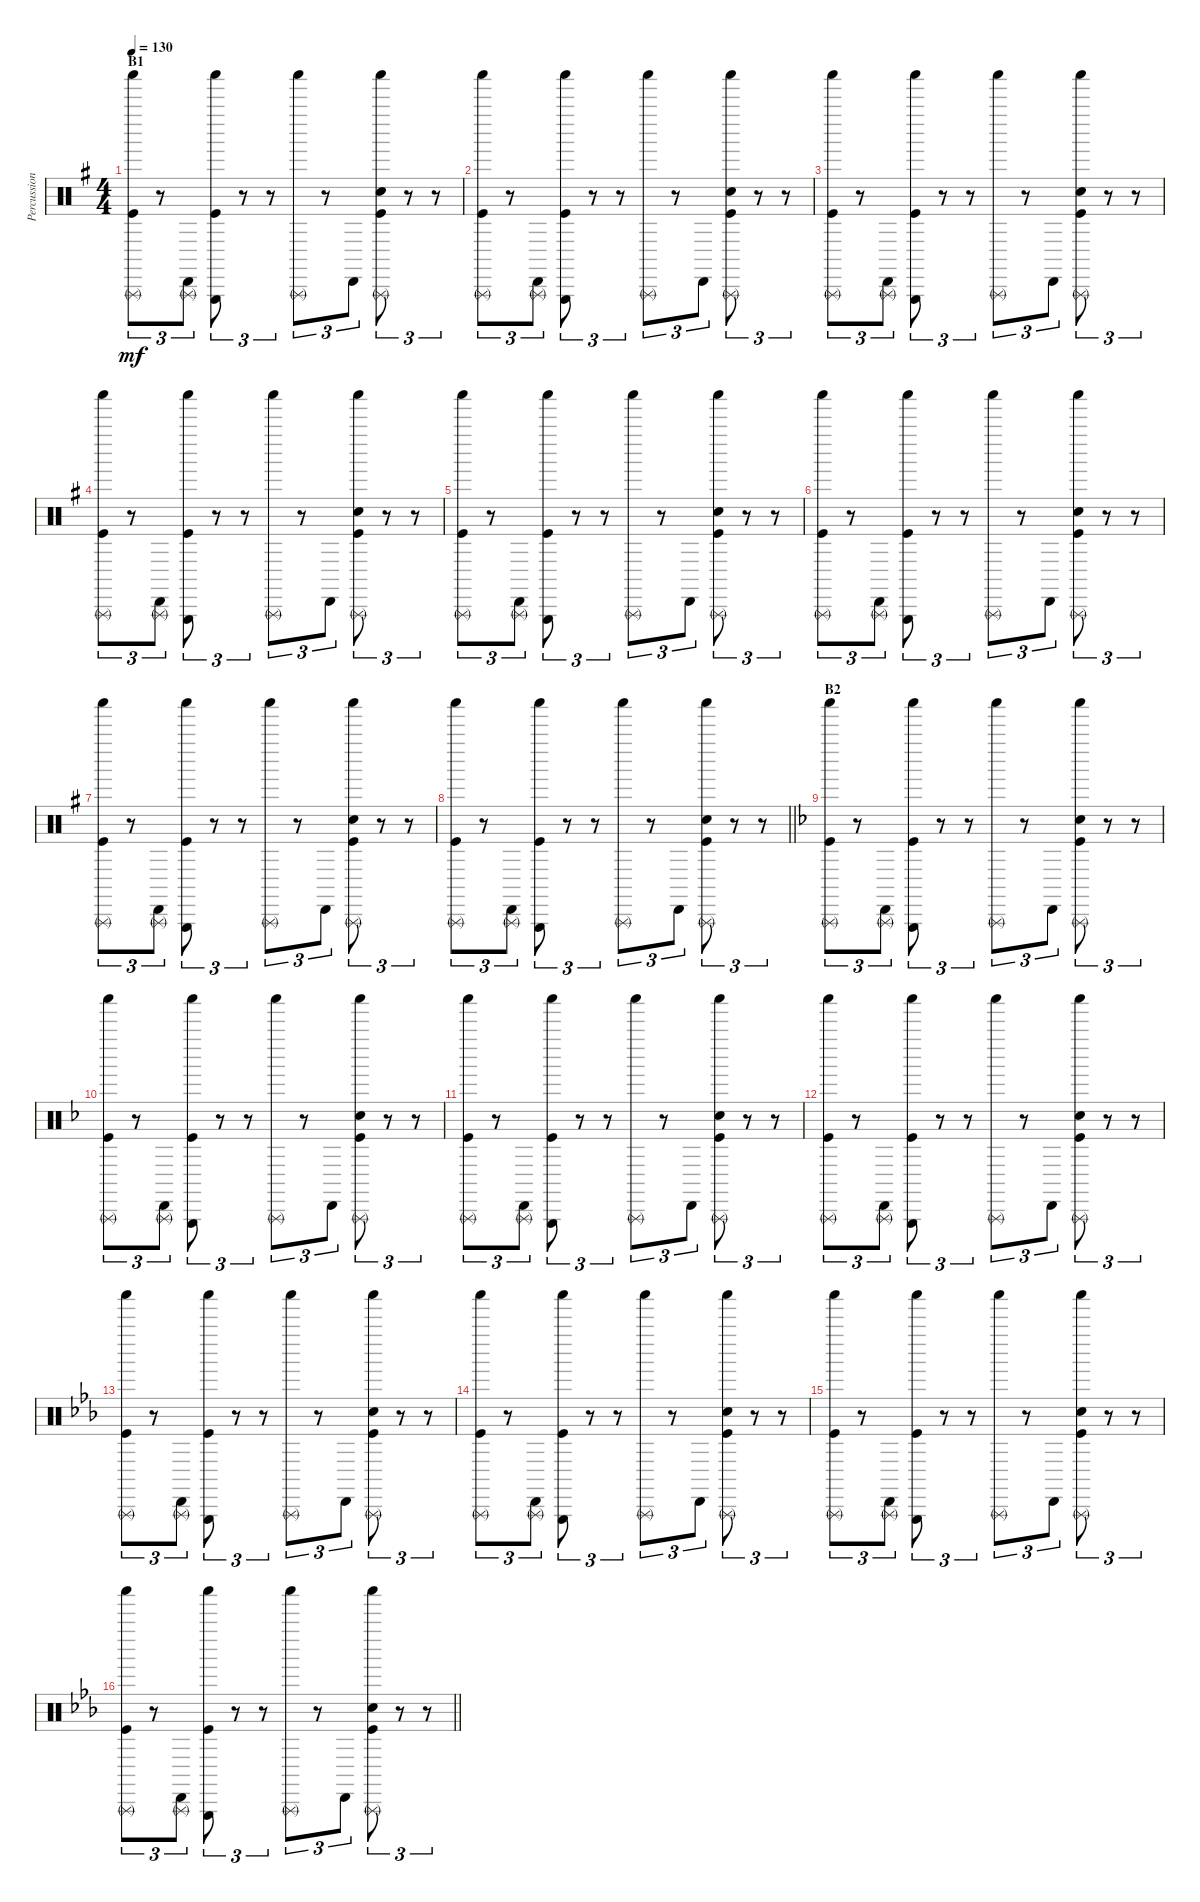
\track ("Percussion" "Percussion") {instrument percussion}
\staff {score}
\articulation defaults
\ts (4 4)
\section ("" "B1")
\tempo 130
\clef neutral
\ks g
("Shaker (hit)" "Kick (hit)" "Triangle (rnute)").8{tu (3 2) dy mf} r.8{tu (3 2)} ("Cabasa (hit)" "Triangle (rnute)").8{tu (3 2)} ("Shaker (hit)" "Kick (hit)" "Triangle (hit)").8{tu (3 2)} r.8{tu (3 2)} r.8{tu (3 2)} ("Shaker (hit)" "Triangle (rnute)").8{tu (3 2)} r.8{tu (3 2)} "Cabasa (hit)".8{tu (3 2)} ("Shaker (hit)" "Kick (hit)" "Triangle (rnute)" "Snare (hit) 2").8{tu (3 2)} r.8{tu (3 2)} r.8{tu (3 2)} |
("Shaker (hit)" "Kick (hit)" "Triangle (rnute)").8{tu (3 2)} r.8{tu (3 2)} ("Cabasa (hit)" "Triangle (rnute)").8{tu (3 2)} ("Shaker (hit)" "Kick (hit)" "Triangle (hit)").8{tu (3 2)} r.8{tu (3 2)} r.8{tu (3 2)} ("Shaker (hit)" "Triangle (rnute)").8{tu (3 2)} r.8{tu (3 2)} "Cabasa (hit)".8{tu (3 2)} ("Shaker (hit)" "Kick (hit)" "Triangle (rnute)" "Snare (hit) 2").8{tu (3 2)} r.8{tu (3 2)} r.8{tu (3 2)} |
("Shaker (hit)" "Kick (hit)" "Triangle (rnute)").8{tu (3 2)} r.8{tu (3 2)} ("Cabasa (hit)" "Triangle (rnute)").8{tu (3 2)} ("Shaker (hit)" "Kick (hit)" "Triangle (hit)").8{tu (3 2)} r.8{tu (3 2)} r.8{tu (3 2)} ("Shaker (hit)" "Triangle (rnute)").8{tu (3 2)} r.8{tu (3 2)} "Cabasa (hit)".8{tu (3 2)} ("Shaker (hit)" "Kick (hit)" "Triangle (rnute)" "Snare (hit) 2").8{tu (3 2)} r.8{tu (3 2)} r.8{tu (3 2)} |
("Shaker (hit)" "Kick (hit)" "Triangle (rnute)").8{tu (3 2)} r.8{tu (3 2)} ("Cabasa (hit)" "Triangle (rnute)").8{tu (3 2)} ("Shaker (hit)" "Kick (hit)" "Triangle (hit)").8{tu (3 2)} r.8{tu (3 2)} r.8{tu (3 2)} ("Shaker (hit)" "Triangle (rnute)").8{tu (3 2)} r.8{tu (3 2)} "Cabasa (hit)".8{tu (3 2)} ("Shaker (hit)" "Kick (hit)" "Triangle (rnute)" "Snare (hit) 2").8{tu (3 2)} r.8{tu (3 2)} r.8{tu (3 2)} |
("Shaker (hit)" "Kick (hit)" "Triangle (rnute)").8{tu (3 2)} r.8{tu (3 2)} ("Cabasa (hit)" "Triangle (rnute)").8{tu (3 2)} ("Shaker (hit)" "Kick (hit)" "Triangle (hit)").8{tu (3 2)} r.8{tu (3 2)} r.8{tu (3 2)} ("Shaker (hit)" "Triangle (rnute)").8{tu (3 2)} r.8{tu (3 2)} "Cabasa (hit)".8{tu (3 2)} ("Shaker (hit)" "Kick (hit)" "Triangle (rnute)" "Snare (hit) 2").8{tu (3 2)} r.8{tu (3 2)} r.8{tu (3 2)} |
("Shaker (hit)" "Kick (hit)" "Triangle (rnute)").8{tu (3 2)} r.8{tu (3 2)} ("Cabasa (hit)" "Triangle (rnute)").8{tu (3 2)} ("Shaker (hit)" "Kick (hit)" "Triangle (hit)").8{tu (3 2)} r.8{tu (3 2)} r.8{tu (3 2)} ("Shaker (hit)" "Triangle (rnute)").8{tu (3 2)} r.8{tu (3 2)} "Cabasa (hit)".8{tu (3 2)} ("Shaker (hit)" "Kick (hit)" "Triangle (rnute)" "Snare (hit) 2").8{tu (3 2)} r.8{tu (3 2)} r.8{tu (3 2)} |
("Shaker (hit)" "Kick (hit)" "Triangle (rnute)").8{tu (3 2)} r.8{tu (3 2)} ("Cabasa (hit)" "Triangle (rnute)").8{tu (3 2)} ("Shaker (hit)" "Kick (hit)" "Triangle (hit)").8{tu (3 2)} r.8{tu (3 2)} r.8{tu (3 2)} ("Shaker (hit)" "Triangle (rnute)").8{tu (3 2)} r.8{tu (3 2)} "Cabasa (hit)".8{tu (3 2)} ("Shaker (hit)" "Kick (hit)" "Triangle (rnute)" "Snare (hit) 2").8{tu (3 2)} r.8{tu (3 2)} r.8{tu (3 2)} |
\barLineRight lightlight
("Shaker (hit)" "Kick (hit)" "Triangle (rnute)").8{tu (3 2)} r.8{tu (3 2)} ("Cabasa (hit)" "Triangle (rnute)").8{tu (3 2)} ("Shaker (hit)" "Kick (hit)" "Triangle (hit)").8{tu (3 2)} r.8{tu (3 2)} r.8{tu (3 2)} ("Shaker (hit)" "Triangle (rnute)").8{tu (3 2)} r.8{tu (3 2)} "Cabasa (hit)".8{tu (3 2)} ("Shaker (hit)" "Kick (hit)" "Triangle (rnute)" "Snare (hit) 2").8{tu (3 2)} r.8{tu (3 2)} r.8{tu (3 2)} |
\section ("" "B2")
\ks f
("Shaker (hit)" "Kick (hit)" "Triangle (rnute)").8{tu (3 2)} r.8{tu (3 2)} ("Cabasa (hit)" "Triangle (rnute)").8{tu (3 2)} ("Shaker (hit)" "Kick (hit)" "Triangle (hit)").8{tu (3 2)} r.8{tu (3 2)} r.8{tu (3 2)} ("Shaker (hit)" "Triangle (rnute)").8{tu (3 2)} r.8{tu (3 2)} "Cabasa (hit)".8{tu (3 2)} ("Shaker (hit)" "Kick (hit)" "Triangle (rnute)" "Snare (hit) 2").8{tu (3 2)} r.8{tu (3 2)} r.8{tu (3 2)} |
("Shaker (hit)" "Kick (hit)" "Triangle (rnute)").8{tu (3 2)} r.8{tu (3 2)} ("Cabasa (hit)" "Triangle (rnute)").8{tu (3 2)} ("Shaker (hit)" "Kick (hit)" "Triangle (hit)").8{tu (3 2)} r.8{tu (3 2)} r.8{tu (3 2)} ("Shaker (hit)" "Triangle (rnute)").8{tu (3 2)} r.8{tu (3 2)} "Cabasa (hit)".8{tu (3 2)} ("Shaker (hit)" "Kick (hit)" "Triangle (rnute)" "Snare (hit) 2").8{tu (3 2)} r.8{tu (3 2)} r.8{tu (3 2)} |
("Shaker (hit)" "Kick (hit)" "Triangle (rnute)").8{tu (3 2)} r.8{tu (3 2)} ("Cabasa (hit)" "Triangle (rnute)").8{tu (3 2)} ("Shaker (hit)" "Kick (hit)" "Triangle (hit)").8{tu (3 2)} r.8{tu (3 2)} r.8{tu (3 2)} ("Shaker (hit)" "Triangle (rnute)").8{tu (3 2)} r.8{tu (3 2)} "Cabasa (hit)".8{tu (3 2)} ("Shaker (hit)" "Kick (hit)" "Triangle (rnute)" "Snare (hit) 2").8{tu (3 2)} r.8{tu (3 2)} r.8{tu (3 2)} |
("Shaker (hit)" "Kick (hit)" "Triangle (rnute)").8{tu (3 2)} r.8{tu (3 2)} ("Cabasa (hit)" "Triangle (rnute)").8{tu (3 2)} ("Shaker (hit)" "Kick (hit)" "Triangle (hit)").8{tu (3 2)} r.8{tu (3 2)} r.8{tu (3 2)} ("Shaker (hit)" "Triangle (rnute)").8{tu (3 2)} r.8{tu (3 2)} "Cabasa (hit)".8{tu (3 2)} ("Shaker (hit)" "Kick (hit)" "Triangle (rnute)" "Snare (hit) 2").8{tu (3 2)} r.8{tu (3 2)} r.8{tu (3 2)} |
\ks eb
("Shaker (hit)" "Kick (hit)" "Triangle (rnute)").8{tu (3 2)} r.8{tu (3 2)} ("Cabasa (hit)" "Triangle (rnute)").8{tu (3 2)} ("Shaker (hit)" "Kick (hit)" "Triangle (hit)").8{tu (3 2)} r.8{tu (3 2)} r.8{tu (3 2)} ("Shaker (hit)" "Triangle (rnute)").8{tu (3 2)} r.8{tu (3 2)} "Cabasa (hit)".8{tu (3 2)} ("Shaker (hit)" "Kick (hit)" "Triangle (rnute)" "Snare (hit) 2").8{tu (3 2)} r.8{tu (3 2)} r.8{tu (3 2)} |
("Shaker (hit)" "Kick (hit)" "Triangle (rnute)").8{tu (3 2)} r.8{tu (3 2)} ("Cabasa (hit)" "Triangle (rnute)").8{tu (3 2)} ("Shaker (hit)" "Kick (hit)" "Triangle (hit)").8{tu (3 2)} r.8{tu (3 2)} r.8{tu (3 2)} ("Shaker (hit)" "Triangle (rnute)").8{tu (3 2)} r.8{tu (3 2)} "Cabasa (hit)".8{tu (3 2)} ("Shaker (hit)" "Kick (hit)" "Triangle (rnute)" "Snare (hit) 2").8{tu (3 2)} r.8{tu (3 2)} r.8{tu (3 2)} |
("Shaker (hit)" "Kick (hit)" "Triangle (rnute)").8{tu (3 2)} r.8{tu (3 2)} ("Cabasa (hit)" "Triangle (rnute)").8{tu (3 2)} ("Shaker (hit)" "Kick (hit)" "Triangle (hit)").8{tu (3 2)} r.8{tu (3 2)} r.8{tu (3 2)} ("Shaker (hit)" "Triangle (rnute)").8{tu (3 2)} r.8{tu (3 2)} "Cabasa (hit)".8{tu (3 2)} ("Shaker (hit)" "Kick (hit)" "Triangle (rnute)" "Snare (hit) 2").8{tu (3 2)} r.8{tu (3 2)} r.8{tu (3 2)} |
\barLineRight lightlight
("Shaker (hit)" "Kick (hit)" "Triangle (rnute)").8{tu (3 2)} r.8{tu (3 2)} ("Cabasa (hit)" "Triangle (rnute)").8{tu (3 2)} ("Shaker (hit)" "Kick (hit)" "Triangle (hit)").8{tu (3 2)} r.8{tu (3 2)} r.8{tu (3 2)} ("Shaker (hit)" "Triangle (rnute)").8{tu (3 2)} r.8{tu (3 2)} "Cabasa (hit)".8{tu (3 2)} ("Shaker (hit)" "Kick (hit)" "Triangle (rnute)" "Snare (hit) 2").8{tu (3 2)} r.8{tu (3 2)} r.8{tu (3 2)}
